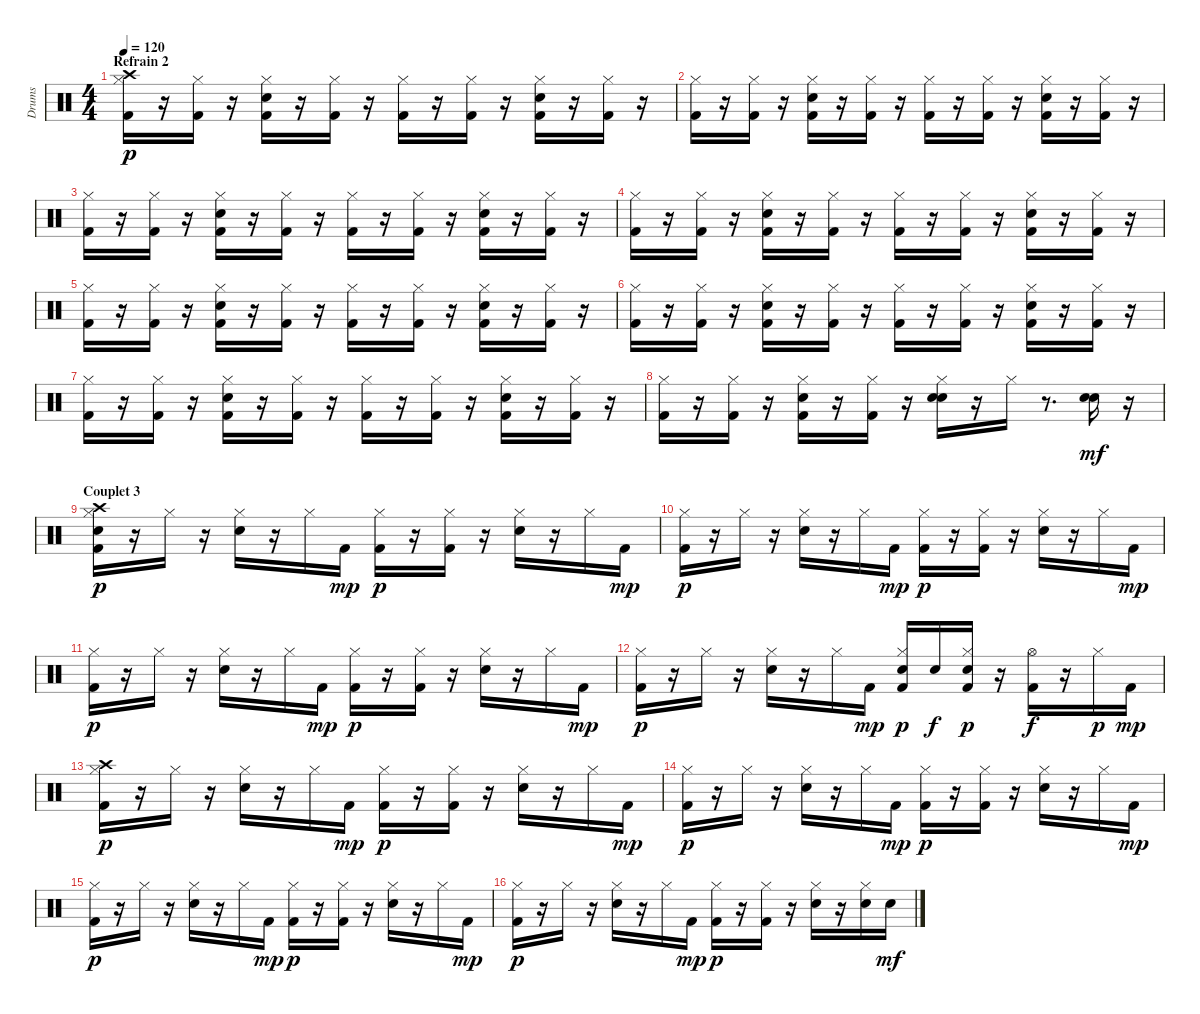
\track ("Drums" "Drums") {instrument percussion}
\staff {score}
\articulation defaults
\ts (4 4)
\section ("" "Refrain 2")
\tempo 120
\clef neutral
\ks c
("Kick (hit) 2" "Hi-Hat (closed)" "Crash high (hit)").16{dy p} r.16 ("Kick (hit) 2" "Hi-Hat (closed)").16 r.16 ("Kick (hit) 2" "Electric Snare (hit)" "Hi-Hat (closed)").16 r.16 ("Kick (hit) 2" "Hi-Hat (closed)").16 r.16 ("Kick (hit) 2" "Hi-Hat (closed)").16 r.16 ("Kick (hit) 2" "Hi-Hat (closed)").16 r.16 ("Kick (hit) 2" "Electric Snare (hit)" "Hi-Hat (closed)").16 r.16 ("Kick (hit) 2" "Hi-Hat (closed)").16 r.16 |
("Kick (hit) 2" "Hi-Hat (closed)").16 r.16 ("Kick (hit) 2" "Hi-Hat (closed)").16 r.16 ("Kick (hit) 2" "Electric Snare (hit)" "Hi-Hat (closed)").16 r.16 ("Kick (hit) 2" "Hi-Hat (closed)").16 r.16 ("Kick (hit) 2" "Hi-Hat (closed)").16 r.16 ("Kick (hit) 2" "Hi-Hat (closed)").16 r.16 ("Kick (hit) 2" "Electric Snare (hit)" "Hi-Hat (closed)").16 r.16 ("Kick (hit) 2" "Hi-Hat (closed)").16 r.16 |
("Kick (hit) 2" "Hi-Hat (closed)").16 r.16 ("Kick (hit) 2" "Hi-Hat (closed)").16 r.16 ("Kick (hit) 2" "Electric Snare (hit)" "Hi-Hat (closed)").16 r.16 ("Kick (hit) 2" "Hi-Hat (closed)").16 r.16 ("Kick (hit) 2" "Hi-Hat (closed)").16 r.16 ("Kick (hit) 2" "Hi-Hat (closed)").16 r.16 ("Kick (hit) 2" "Electric Snare (hit)" "Hi-Hat (closed)").16 r.16 ("Kick (hit) 2" "Hi-Hat (closed)").16 r.16 |
("Kick (hit) 2" "Hi-Hat (closed)").16 r.16 ("Kick (hit) 2" "Hi-Hat (closed)").16 r.16 ("Kick (hit) 2" "Electric Snare (hit)" "Hi-Hat (closed)").16 r.16 ("Kick (hit) 2" "Hi-Hat (closed)").16 r.16 ("Kick (hit) 2" "Hi-Hat (closed)").16 r.16 ("Kick (hit) 2" "Hi-Hat (closed)").16 r.16 ("Kick (hit) 2" "Electric Snare (hit)" "Hi-Hat (closed)").16 r.16 ("Kick (hit) 2" "Hi-Hat (closed)").16 r.16 |
("Kick (hit) 2" "Hi-Hat (closed)").16 r.16 ("Kick (hit) 2" "Hi-Hat (closed)").16 r.16 ("Kick (hit) 2" "Electric Snare (hit)" "Hi-Hat (closed)").16 r.16 ("Kick (hit) 2" "Hi-Hat (closed)").16 r.16 ("Kick (hit) 2" "Hi-Hat (closed)").16 r.16 ("Kick (hit) 2" "Hi-Hat (closed)").16 r.16 ("Kick (hit) 2" "Electric Snare (hit)" "Hi-Hat (closed)").16 r.16 ("Kick (hit) 2" "Hi-Hat (closed)").16 r.16 |
("Kick (hit) 2" "Hi-Hat (closed)").16 r.16 ("Kick (hit) 2" "Hi-Hat (closed)").16 r.16 ("Kick (hit) 2" "Electric Snare (hit)" "Hi-Hat (closed)").16 r.16 ("Kick (hit) 2" "Hi-Hat (closed)").16 r.16 ("Kick (hit) 2" "Hi-Hat (closed)").16 r.16 ("Kick (hit) 2" "Hi-Hat (closed)").16 r.16 ("Kick (hit) 2" "Electric Snare (hit)" "Hi-Hat (closed)").16 r.16 ("Kick (hit) 2" "Hi-Hat (closed)").16 r.16 |
("Kick (hit) 2" "Hi-Hat (closed)").16 r.16 ("Kick (hit) 2" "Hi-Hat (closed)").16 r.16 ("Kick (hit) 2" "Electric Snare (hit)" "Hi-Hat (closed)").16 r.16 ("Kick (hit) 2" "Hi-Hat (closed)").16 r.16 ("Kick (hit) 2" "Hi-Hat (closed)").16 r.16 ("Kick (hit) 2" "Hi-Hat (closed)").16 r.16 ("Kick (hit) 2" "Electric Snare (hit)" "Hi-Hat (closed)").16 r.16 ("Kick (hit) 2" "Hi-Hat (closed)").16 r.16 |
("Kick (hit) 2" "Hi-Hat (closed)").16 r.16 ("Kick (hit) 2" "Hi-Hat (closed)").16 r.16 ("Kick (hit) 2" "Electric Snare (hit)" "Hi-Hat (closed)").16 r.16 ("Kick (hit) 2" "Hi-Hat (closed)").16 r.16 ("Electric Snare (hit)" "Hi-Hat (closed)" "Electric Snare (hit)").16 r.16 "Hi-Hat (closed)".16 r.8{d} ("Electric Snare (hit)" "Electric Snare (hit)").16{dy mf} r.16 |
\section ("" "Couplet 3")
("Electric Snare (hit)" "Kick (hit) 2" "Hi-Hat (closed)" "Crash high (hit)").16{dy p} r.16 "Hi-Hat (closed)".16 r.16 ("Electric Snare (hit)" "Hi-Hat (closed)").16 r.16 "Hi-Hat (closed)".16 "Kick (hit) 2".16{dy mp} ("Kick (hit) 2" "Hi-Hat (closed)").16{dy p} r.16 ("Kick (hit) 2" "Hi-Hat (closed)").16 r.16 ("Electric Snare (hit)" "Hi-Hat (closed)").16 r.16 "Hi-Hat (closed)".16 "Kick (hit) 2".16{dy mp} |
("Kick (hit) 2" "Hi-Hat (closed)").16{dy p} r.16 "Hi-Hat (closed)".16 r.16 ("Electric Snare (hit)" "Hi-Hat (closed)").16 r.16 "Hi-Hat (closed)".16 "Kick (hit) 2".16{dy mp} ("Kick (hit) 2" "Hi-Hat (closed)").16{dy p} r.16 ("Kick (hit) 2" "Hi-Hat (closed)").16 r.16 ("Electric Snare (hit)" "Hi-Hat (closed)").16 r.16 "Hi-Hat (closed)".16 "Kick (hit) 2".16{dy mp} |
("Kick (hit) 2" "Hi-Hat (closed)").16{dy p} r.16 "Hi-Hat (closed)".16 r.16 ("Electric Snare (hit)" "Hi-Hat (closed)").16 r.16 "Hi-Hat (closed)".16 "Kick (hit) 2".16{dy mp} ("Kick (hit) 2" "Hi-Hat (closed)").16{dy p} r.16 ("Kick (hit) 2" "Hi-Hat (closed)").16 r.16 ("Electric Snare (hit)" "Hi-Hat (closed)").16 r.16 "Hi-Hat (closed)".16 "Kick (hit) 2".16{dy mp} |
("Kick (hit) 2" "Hi-Hat (closed)").16{dy p} r.16 "Hi-Hat (closed)".16 r.16 ("Electric Snare (hit)" "Hi-Hat (closed)").16 r.16 "Hi-Hat (closed)".16 "Kick (hit) 2".16{dy mp} ("Kick (hit) 2" "Electric Snare (hit)" "Hi-Hat (closed)").16{dy p} "Electric Snare (hit)".16{dy f} ("Kick (hit) 2" "Electric Snare (hit)" "Hi-Hat (closed)").16{dy p} r.16 ("Kick (hit) 2" "Hi-Hat (open)").16{dy f} r.16 "Hi-Hat (closed)".16{dy p} "Kick (hit) 2".16{dy mp} |
("Kick (hit) 2" "Hi-Hat (closed)" "Crash high (hit)").16{dy p} r.16 "Hi-Hat (closed)".16 r.16 ("Electric Snare (hit)" "Hi-Hat (closed)").16 r.16 "Hi-Hat (closed)".16 "Kick (hit) 2".16{dy mp} ("Kick (hit) 2" "Hi-Hat (closed)").16{dy p} r.16 ("Kick (hit) 2" "Hi-Hat (closed)").16 r.16 ("Electric Snare (hit)" "Hi-Hat (closed)").16 r.16 "Hi-Hat (closed)".16 "Kick (hit) 2".16{dy mp} |
("Kick (hit) 2" "Hi-Hat (closed)").16{dy p} r.16 "Hi-Hat (closed)".16 r.16 ("Electric Snare (hit)" "Hi-Hat (closed)").16 r.16 "Hi-Hat (closed)".16 "Kick (hit) 2".16{dy mp} ("Kick (hit) 2" "Hi-Hat (closed)").16{dy p} r.16 ("Kick (hit) 2" "Hi-Hat (closed)").16 r.16 ("Electric Snare (hit)" "Hi-Hat (closed)").16 r.16 "Hi-Hat (closed)".16 "Kick (hit) 2".16{dy mp} |
("Kick (hit) 2" "Hi-Hat (closed)").16{dy p} r.16 "Hi-Hat (closed)".16 r.16 ("Electric Snare (hit)" "Hi-Hat (closed)").16 r.16 "Hi-Hat (closed)".16 "Kick (hit) 2".16{dy mp} ("Kick (hit) 2" "Hi-Hat (closed)").16{dy p} r.16 ("Kick (hit) 2" "Hi-Hat (closed)").16 r.16 ("Electric Snare (hit)" "Hi-Hat (closed)").16 r.16 "Hi-Hat (closed)".16 "Kick (hit) 2".16{dy mp} |
("Kick (hit) 2" "Hi-Hat (closed)").16{dy p} r.16 "Hi-Hat (closed)".16 r.16 ("Electric Snare (hit)" "Hi-Hat (closed)").16 r.16 "Hi-Hat (closed)".16 "Kick (hit) 2".16{dy mp} ("Kick (hit) 2" "Hi-Hat (closed)").16{dy p} r.16 ("Kick (hit) 2" "Hi-Hat (closed)").16 r.16 ("Electric Snare (hit)" "Hi-Hat (closed)").16 r.16 ("Electric Snare (hit)" "Hi-Hat (closed)").16 "Electric Snare (hit)".16{dy mf}
